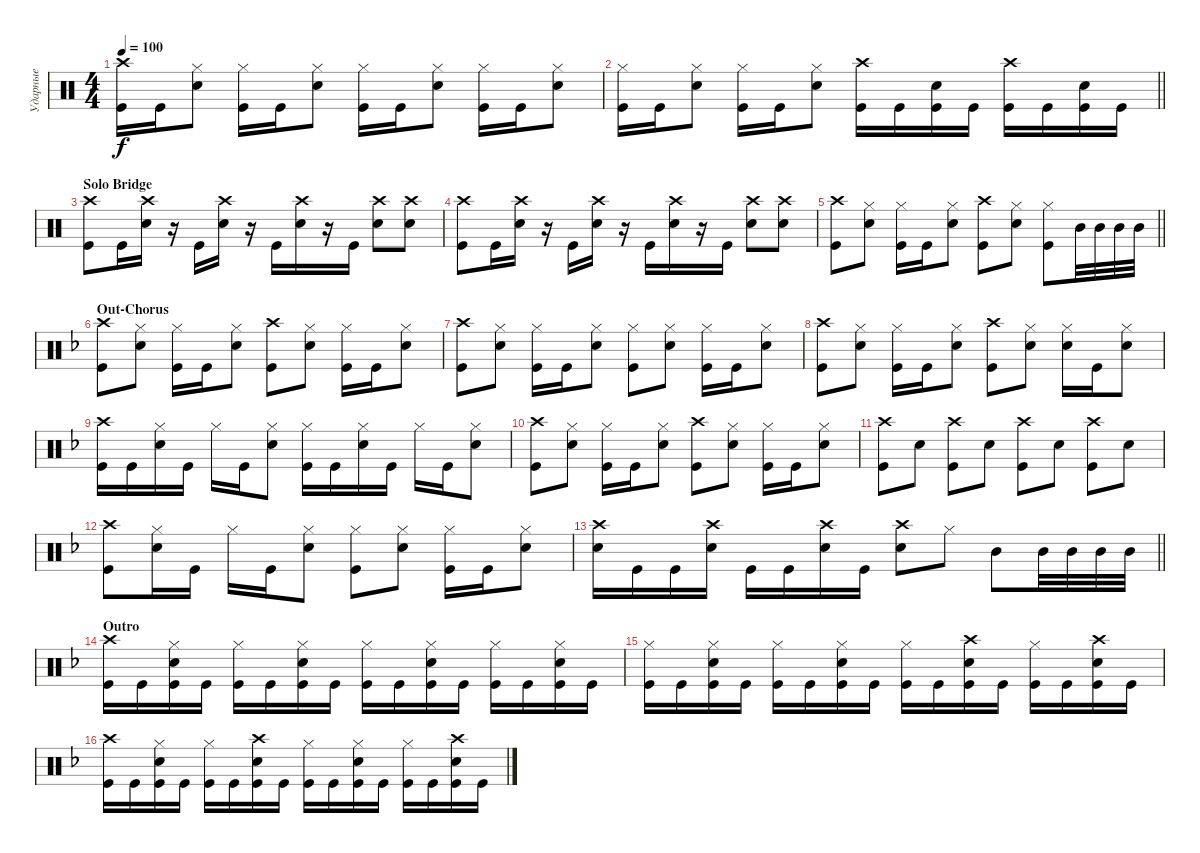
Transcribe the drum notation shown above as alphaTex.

\track ("Ударные" "Ударные") {instrument percussion}
\staff {score}
\articulation defaults
\ts (4 4)
\tempo 100
\clef neutral
\ks aminor
("Kick (hit)" "Crash high (hit)").16{dy f} "Kick (hit)".16 ("Snare (hit) 2" "Hi-Hat (closed)").8 ("Kick (hit)" "Hi-Hat (closed)").16 "Kick (hit)".16 ("Snare (hit) 2" "Hi-Hat (closed)").8 ("Hi-Hat (closed)" "Kick (hit)").16 "Kick (hit)".16 ("Snare (hit) 2" "Hi-Hat (closed)").8 ("Kick (hit)" "Hi-Hat (closed)").16 "Kick (hit)".16 ("Snare (hit) 2" "Hi-Hat (closed)").8 |
\barLineRight lightlight
("Hi-Hat (closed)" "Kick (hit)").16 "Kick (hit)".16 ("Snare (hit) 2" "Hi-Hat (closed)").8 ("Kick (hit)" "Hi-Hat (closed)").16 "Kick (hit)".16 ("Snare (hit) 2" "Hi-Hat (closed)").8 ("Kick (hit)" "Crash high (hit)").16 "Kick (hit)".16 ("Kick (hit)" "Snare (hit) 2").16 "Kick (hit)".16 ("Kick (hit)" "Crash high (hit)").16 "Kick (hit)".16 ("Kick (hit)" "Snare (hit) 2").16 "Kick (hit)".16 |
\section ("" "Solo Bridge")
("Kick (hit)" "Crash high (hit)").8 "Kick (hit)".16 ("Snare (hit) 2" "Crash high (hit)").16 r.16 "Kick (hit)".16 ("Snare (hit) 2" "Crash high (hit)").16 r.16 "Kick (hit)".16 ("Snare (hit) 2" "Crash high (hit)").16 r.16 "Kick (hit)".16 ("Snare (hit) 2" "Crash high (hit)").8 ("Snare (hit) 2" "Crash high (hit)").8 |
("Kick (hit)" "Crash high (hit)").8 "Kick (hit)".16 ("Snare (hit) 2" "Crash high (hit)").16 r.16 "Kick (hit)".16 ("Snare (hit) 2" "Crash high (hit)").16 r.16 "Kick (hit)".16 ("Snare (hit) 2" "Crash high (hit)").16 r.16 "Kick (hit)".16 ("Snare (hit) 2" "Crash high (hit)").8 ("Snare (hit) 2" "Crash high (hit)").8 |
\barLineRight lightlight
("Kick (hit)" "Crash high (hit)").8 ("Snare (hit) 2" "Hi-Hat (closed)").8 ("Kick (hit)" "Hi-Hat (closed)").16 "Kick (hit)".16 ("Snare (hit) 2" "Hi-Hat (closed)").8 ("Crash high (hit)" "Kick (hit)").8 ("Snare (hit) 2" "Hi-Hat (closed)").8 ("Kick (hit)" "Hi-Hat (closed)").8 "Mid Tom (hit)".32 "Mid Tom (hit)".32 "Mid Tom (hit)".32 "Mid Tom (hit)".32 |
\section ("" "Out-Chorus")
\ks dminor
("Kick (hit)" "Crash high (hit)").8 ("Snare (hit) 2" "Hi-Hat (closed)").8 ("Kick (hit)" "Hi-Hat (closed)").16 "Kick (hit)".16 ("Snare (hit) 2" "Hi-Hat (closed)").8 ("Kick (hit)" "Crash high (hit)").8 ("Snare (hit) 2" "Hi-Hat (closed)").8 ("Kick (hit)" "Hi-Hat (closed)").16 "Kick (hit)".16 ("Snare (hit) 2" "Hi-Hat (closed)").8 |
("Kick (hit)" "Crash high (hit)").8 ("Snare (hit) 2" "Hi-Hat (closed)").8 ("Kick (hit)" "Hi-Hat (closed)").16 "Kick (hit)".16 ("Snare (hit) 2" "Hi-Hat (closed)").8 ("Kick (hit)" "Hi-Hat (closed)").8 ("Snare (hit) 2" "Hi-Hat (closed)").8 ("Kick (hit)" "Hi-Hat (closed)").16 "Kick (hit)".16 ("Snare (hit) 2" "Hi-Hat (closed)").8 |
("Kick (hit)" "Crash high (hit)").8 ("Snare (hit) 2" "Hi-Hat (closed)").8 ("Kick (hit)" "Hi-Hat (closed)").16 "Kick (hit)".16 ("Snare (hit) 2" "Hi-Hat (closed)").8 ("Kick (hit)" "Crash high (hit)").8 ("Snare (hit) 2" "Hi-Hat (closed)").8 ("Snare (hit) 2" "Hi-Hat (closed)").16 "Kick (hit)".16 ("Snare (hit) 2" "Hi-Hat (closed)").8 |
("Kick (hit)" "Crash high (hit)").16 "Kick (hit)".16 ("Snare (hit) 2" "Hi-Hat (closed)").16 "Kick (hit)".16 "Hi-Hat (closed)".16 "Kick (hit)".16 ("Snare (hit) 2" "Hi-Hat (closed)").8 ("Kick (hit)" "Hi-Hat (closed)").16 "Kick (hit)".16 ("Snare (hit) 2" "Hi-Hat (closed)").16 "Kick (hit)".16 "Hi-Hat (closed)".16 "Kick (hit)".16 ("Snare (hit) 2" "Hi-Hat (closed)").8 |
("Kick (hit)" "Crash high (hit)").8 ("Snare (hit) 2" "Hi-Hat (closed)").8 ("Kick (hit)" "Hi-Hat (closed)").16 "Kick (hit)".16 ("Snare (hit) 2" "Hi-Hat (closed)").8 ("Kick (hit)" "Crash high (hit)").8 ("Snare (hit) 2" "Hi-Hat (closed)").8 ("Kick (hit)" "Hi-Hat (closed)").16 "Kick (hit)".16 ("Snare (hit) 2" "Hi-Hat (closed)").8 |
("Kick (hit)" "Crash high (hit)").8 "Snare (hit) 2".8 ("Kick (hit)" "Crash high (hit)").8 "Snare (hit) 2".8 ("Kick (hit)" "Crash high (hit)").8 "Snare (hit) 2".8 ("Kick (hit)" "Crash high (hit)").8 "Snare (hit) 2".8 |
("Kick (hit)" "Crash high (hit)").8 ("Snare (hit) 2" "Hi-Hat (closed)").16 "Kick (hit)".16 "Hi-Hat (closed)".16 "Kick (hit)".16 ("Snare (hit) 2" "Hi-Hat (closed)").8 ("Kick (hit)" "Hi-Hat (closed)").8 ("Snare (hit) 2" "Hi-Hat (closed)").8 ("Kick (hit)" "Hi-Hat (closed)").16 "Kick (hit)".16 ("Snare (hit) 2" "Hi-Hat (closed)").8 |
\barLineRight lightlight
("Snare (hit) 2" "Crash high (hit)").16 "Kick (hit)".16 "Kick (hit)".16 ("Snare (hit) 2" "Crash high (hit)").16 "Kick (hit)".16 "Kick (hit)".16 ("Snare (hit) 2" "Crash high (hit)").16 "Kick (hit)".16 ("Snare (hit) 2" "Crash high (hit)").8 "Hi-Hat (closed)".8 "Mid Tom (hit)".8 "Mid Tom (hit)".32 "Mid Tom (hit)".32 "Mid Tom (hit)".32 "Mid Tom (hit)".32 |
\section ("" "Outro")
("Kick (hit)" "Crash high (hit)").16 "Kick (hit)".16 ("Kick (hit)" "Snare (hit) 2" "Hi-Hat (closed)").16 "Kick (hit)".16 ("Kick (hit)" "Hi-Hat (closed)").16 "Kick (hit)".16 ("Kick (hit)" "Snare (hit) 2" "Hi-Hat (closed)").16 "Kick (hit)".16 ("Kick (hit)" "Hi-Hat (closed)").16 "Kick (hit)".16 ("Kick (hit)" "Snare (hit) 2" "Hi-Hat (closed)").16 "Kick (hit)".16 ("Kick (hit)" "Hi-Hat (closed)").16 "Kick (hit)".16 ("Kick (hit)" "Snare (hit) 2" "Hi-Hat (closed)").16 "Kick (hit)".16 |
("Kick (hit)" "Hi-Hat (closed)").16 "Kick (hit)".16 ("Kick (hit)" "Snare (hit) 2" "Hi-Hat (closed)").16 "Kick (hit)".16 ("Kick (hit)" "Hi-Hat (closed)").16 "Kick (hit)".16 ("Kick (hit)" "Snare (hit) 2" "Hi-Hat (closed)").16 "Kick (hit)".16 ("Kick (hit)" "Hi-Hat (closed)").16 "Kick (hit)".16 ("Kick (hit)" "Snare (hit) 2" "Crash high (hit)").16 "Kick (hit)".16 ("Kick (hit)" "Hi-Hat (closed)").16 "Kick (hit)".16 ("Kick (hit)" "Snare (hit) 2" "Crash high (hit)").16 "Kick (hit)".16 |
("Kick (hit)" "Crash high (hit)").16 "Kick (hit)".16 ("Kick (hit)" "Snare (hit) 2" "Hi-Hat (closed)").16 "Kick (hit)".16 ("Kick (hit)" "Hi-Hat (closed)").16 "Kick (hit)".16 ("Kick (hit)" "Snare (hit) 2" "Crash high (hit)").16 "Kick (hit)".16 ("Kick (hit)" "Hi-Hat (closed)").16 "Kick (hit)".16 ("Kick (hit)" "Snare (hit) 2" "Hi-Hat (closed)").16 "Kick (hit)".16 ("Kick (hit)" "Hi-Hat (closed)").16 "Kick (hit)".16 ("Kick (hit)" "Snare (hit) 2" "Crash high (hit)").16 "Kick (hit)".16
